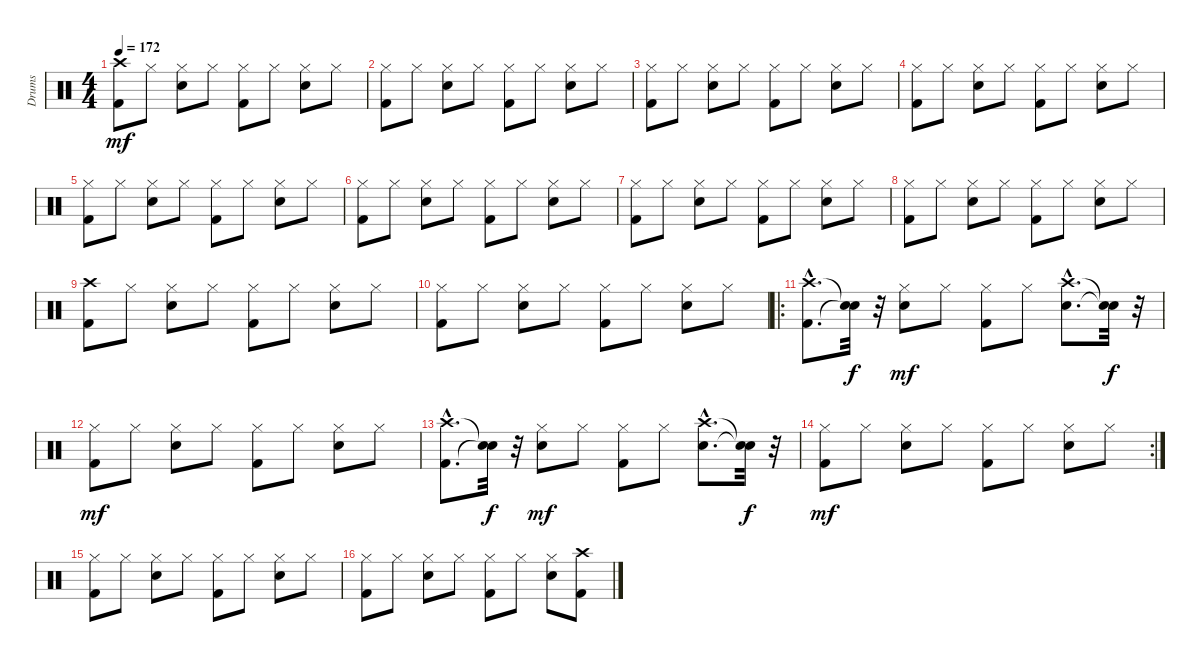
\track ("Drums" "Drums") {instrument percussion}
\staff {score}
\articulation defaults
\ts (4 4)
\tempo 172
\clef neutral
\ks c
("Crash high (hit)" "Kick (hit) 2").8{dy mf} "Hi-Hat (closed)".8 ("Hi-Hat (closed)" "Snare (hit) 2").8 "Hi-Hat (closed)".8 ("Hi-Hat (closed)" "Kick (hit) 2").8 "Hi-Hat (closed)".8 ("Hi-Hat (closed)" "Snare (hit) 2").8 "Hi-Hat (closed)".8 |
("Hi-Hat (closed)" "Kick (hit) 2").8 "Hi-Hat (closed)".8 ("Hi-Hat (closed)" "Snare (hit) 2").8 "Hi-Hat (closed)".8 ("Hi-Hat (closed)" "Kick (hit) 2").8 "Hi-Hat (closed)".8 ("Hi-Hat (closed)" "Snare (hit) 2").8 "Hi-Hat (closed)".8 |
("Hi-Hat (closed)" "Kick (hit) 2").8 "Hi-Hat (closed)".8 ("Hi-Hat (closed)" "Snare (hit) 2").8 "Hi-Hat (closed)".8 ("Hi-Hat (closed)" "Kick (hit) 2").8 "Hi-Hat (closed)".8 ("Hi-Hat (closed)" "Snare (hit) 2").8 "Hi-Hat (closed)".8 |
("Hi-Hat (closed)" "Kick (hit) 2").8 "Hi-Hat (closed)".8 ("Hi-Hat (closed)" "Snare (hit) 2").8 "Hi-Hat (closed)".8 ("Hi-Hat (closed)" "Kick (hit) 2").8 "Hi-Hat (closed)".8 ("Hi-Hat (closed)" "Snare (hit) 2").8 "Hi-Hat (closed)".8 |
("Hi-Hat (closed)" "Kick (hit) 2").8 "Hi-Hat (closed)".8 ("Hi-Hat (closed)" "Snare (hit) 2").8 "Hi-Hat (closed)".8 ("Hi-Hat (closed)" "Kick (hit) 2").8 "Hi-Hat (closed)".8 ("Hi-Hat (closed)" "Snare (hit) 2").8 "Hi-Hat (closed)".8 |
("Kick (hit) 2" "Hi-Hat (closed)").8 "Hi-Hat (closed)".8 ("Snare (hit) 2" "Hi-Hat (closed)").8 "Hi-Hat (closed)".8 ("Kick (hit) 2" "Hi-Hat (closed)").8 "Hi-Hat (closed)".8 ("Snare (hit) 2" "Hi-Hat (closed)").8 "Hi-Hat (closed)".8 |
("Kick (hit) 2" "Hi-Hat (closed)").8 "Hi-Hat (closed)".8 ("Snare (hit) 2" "Hi-Hat (closed)").8 "Hi-Hat (closed)".8 ("Kick (hit) 2" "Hi-Hat (closed)").8 "Hi-Hat (closed)".8 ("Snare (hit) 2" "Hi-Hat (closed)").8 "Hi-Hat (closed)".8 |
("Kick (hit) 2" "Hi-Hat (closed)").8 "Hi-Hat (closed)".8 ("Snare (hit) 2" "Hi-Hat (closed)").8 "Hi-Hat (closed)".8 ("Kick (hit) 2" "Hi-Hat (closed)").8 "Hi-Hat (closed)".8 ("Snare (hit) 2" "Hi-Hat (closed)").8 "Hi-Hat (closed)".8 |
("Crash high (hit)" "Kick (hit) 2").8 "Hi-Hat (closed)".8 ("Hi-Hat (closed)" "Snare (hit) 2").8 "Hi-Hat (closed)".8 ("Hi-Hat (closed)" "Kick (hit) 2").8 "Hi-Hat (closed)".8 ("Hi-Hat (closed)" "Snare (hit) 2").8 "Hi-Hat (closed)".8 |
("Hi-Hat (closed)" "Kick (hit) 2").8 "Hi-Hat (closed)".8 ("Hi-Hat (closed)" "Snare (hit) 2").8 "Hi-Hat (closed)".8 ("Hi-Hat (closed)" "Kick (hit) 2").8 "Hi-Hat (closed)".8 ("Hi-Hat (closed)" "Snare (hit) 2").8 "Hi-Hat (closed)".8 |
\ro
("Crash high (hit)"{hac} "Kick (hit) 2"{hac}).8{d} ("Snare (hit)"{t} "Snare (hit)"{t}).32{dy f} r.32 ("Snare (hit) 2" "Hi-Hat (closed)").8{dy mf} "Hi-Hat (closed)".8 ("Kick (hit) 2" "Hi-Hat (closed)").8 "Hi-Hat (closed)".8 ("Crash high (hit)"{hac} "Snare (hit) 2"{hac}).8{d} ("Snare (hit)"{t} "Snare (hit)"{t}).32{dy f} r.32 |
("Kick (hit) 2" "Hi-Hat (closed)").8{dy mf} "Hi-Hat (closed)".8 ("Snare (hit) 2" "Hi-Hat (closed)").8 "Hi-Hat (closed)".8 ("Kick (hit) 2" "Hi-Hat (closed)").8 "Hi-Hat (closed)".8 ("Snare (hit) 2" "Hi-Hat (closed)").8 "Hi-Hat (closed)".8 |
("Kick (hit) 2"{hac} "Crash high (hit)"{hac}).8{d} ("Snare (hit)"{t} "Snare (hit)"{t}).32{dy f} r.32 ("Snare (hit) 2" "Hi-Hat (closed)").8{dy mf} "Hi-Hat (closed)".8 ("Hi-Hat (closed)" "Kick (hit) 2").8 "Hi-Hat (closed)".8 ("Snare (hit) 2"{hac} "Crash high (hit)"{hac}).8{d} ("Snare (hit)"{t} "Snare (hit)"{t}).32{dy f} r.32 |
\rc 2
("Kick (hit) 2" "Hi-Hat (closed)").8{dy mf} "Hi-Hat (closed)".8 ("Snare (hit) 2" "Hi-Hat (closed)").8 "Hi-Hat (closed)".8 ("Kick (hit) 2" "Hi-Hat (closed)").8 "Hi-Hat (closed)".8 ("Snare (hit) 2" "Hi-Hat (closed)").8 "Hi-Hat (closed)".8 |
("Hi-Hat (closed)" "Kick (hit) 2").8 "Hi-Hat (closed)".8 ("Hi-Hat (closed)" "Snare (hit) 2").8 "Hi-Hat (closed)".8 ("Hi-Hat (closed)" "Kick (hit) 2").8 "Hi-Hat (closed)".8 ("Hi-Hat (closed)" "Snare (hit) 2").8 "Hi-Hat (closed)".8 |
("Kick (hit) 2" "Hi-Hat (closed)").8 "Hi-Hat (closed)".8 ("Snare (hit) 2" "Hi-Hat (closed)").8 "Hi-Hat (closed)".8 ("Kick (hit) 2" "Hi-Hat (closed)").8 "Hi-Hat (closed)".8 ("Snare (hit) 2" "Hi-Hat (closed)").8 ("Kick (hit) 2" "Crash high (hit)").8
